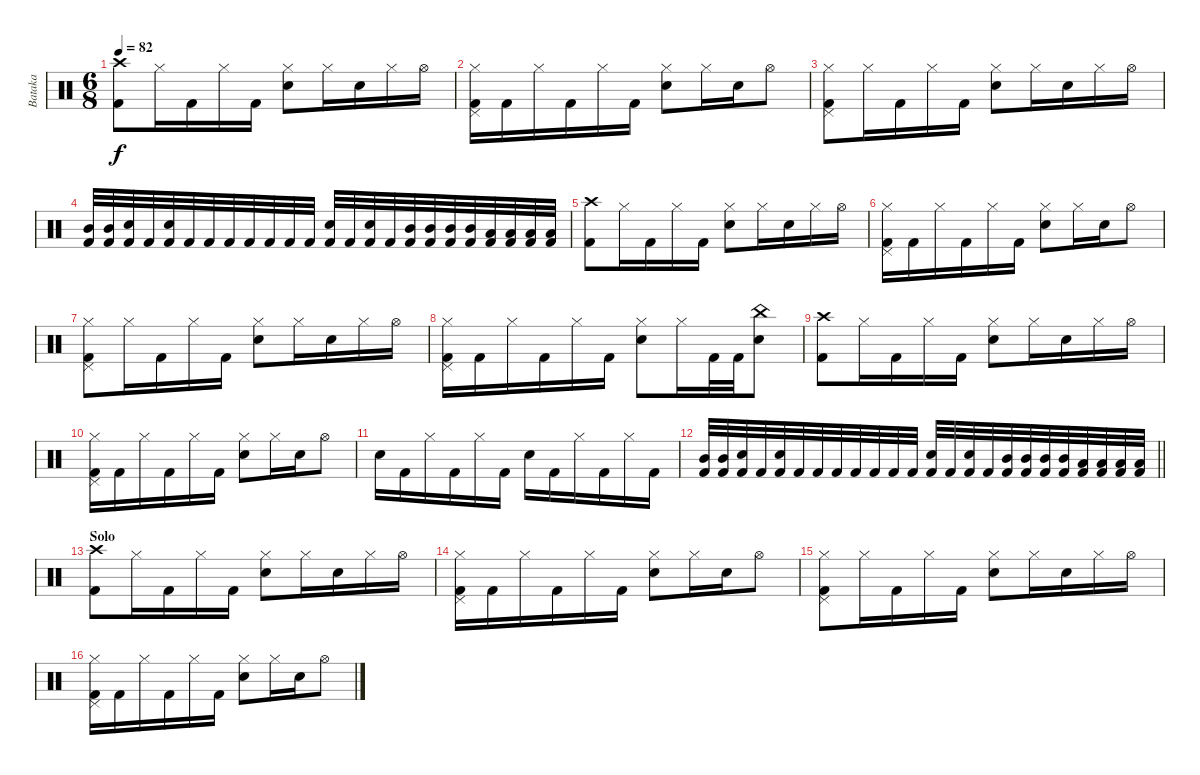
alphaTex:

\track ("Bataka" "Bataka") {instrument percussion}
\staff {score}
\articulation defaults
\ts (6 8)
\tempo 82
\clef neutral
\ks c
("Crash high (hit)" "Kick (hit) 2").8{dy f} "Hi-Hat (closed)".16 "Kick (hit) 2".16 "Hi-Hat (closed)".16 "Kick (hit) 2".16 ("Hi-Hat (closed)" "Snare (hit) 2").8 "Hi-Hat (closed)".16 "Snare (hit) 2".16 "Hi-Hat (closed)".16 "Hi-Hat (open)".16 |
("Hi-Hat (closed)" "Pedal Hi-Hat (hit)" "Kick (hit) 2").16 "Kick (hit) 2".16 "Hi-Hat (closed)".16 "Kick (hit) 2".16 "Hi-Hat (closed)".16 "Kick (hit) 2".16 ("Hi-Hat (closed)" "Snare (hit) 2").8 "Hi-Hat (closed)".16 "Snare (hit) 2".16 "Hi-Hat (open)".8 |
("Hi-Hat (closed)" "Pedal Hi-Hat (hit)" "Kick (hit) 2").8 "Hi-Hat (closed)".16 "Kick (hit) 2".16 "Hi-Hat (closed)".16 "Kick (hit) 2".16 ("Hi-Hat (closed)" "Snare (hit) 2").8 "Hi-Hat (closed)".16 "Snare (hit) 2".16 "Hi-Hat (closed)".16 "Hi-Hat (open)".16 |
("Mid Tom (hit)" "Kick (hit) 2").32 ("Mid Tom (hit)" "Kick (hit) 2").32 ("Snare (hit) 2" "Kick (hit) 2").32 "Kick (hit) 2".32 ("Snare (hit) 2" "Kick (hit) 2").32 "Kick (hit) 2".32 "Kick (hit) 2".32 "Kick (hit) 2".32 "Kick (hit) 2".32 "Kick (hit) 2".32 "Kick (hit) 2".32 "Kick (hit) 2".32 ("Snare (hit) 2" "Kick (hit) 2").32 "Kick (hit) 2".32 ("Snare (hit) 2" "Kick (hit) 2").32 "Kick (hit) 2".32 ("Mid Tom (hit)" "Kick (hit) 2").32 ("Mid Tom (hit)" "Kick (hit) 2").32 ("Mid Tom (hit)" "Kick (hit) 2").32 ("Mid Tom (hit)" "Kick (hit) 2").32 ("Low Tom (hit)" "Kick (hit) 2").32 ("Low Tom (hit)" "Kick (hit) 2").32 ("Low Tom (hit)" "Kick (hit) 2").32 ("Low Tom (hit)" "Kick (hit) 2").32 |
("Crash high (hit)" "Kick (hit) 2").8 "Hi-Hat (closed)".16 "Kick (hit) 2".16 "Hi-Hat (closed)".16 "Kick (hit) 2".16 ("Hi-Hat (closed)" "Snare (hit) 2").8 "Hi-Hat (closed)".16 "Snare (hit) 2".16 "Hi-Hat (closed)".16 "Hi-Hat (open)".16 |
("Hi-Hat (closed)" "Pedal Hi-Hat (hit)" "Kick (hit) 2").16 "Kick (hit) 2".16 "Hi-Hat (closed)".16 "Kick (hit) 2".16 "Hi-Hat (closed)".16 "Kick (hit) 2".16 ("Hi-Hat (closed)" "Snare (hit) 2").8 "Hi-Hat (closed)".16 "Snare (hit) 2".16 "Hi-Hat (open)".8 |
("Hi-Hat (closed)" "Pedal Hi-Hat (hit)" "Kick (hit) 2").8 "Hi-Hat (closed)".16 "Kick (hit) 2".16 "Hi-Hat (closed)".16 "Kick (hit) 2".16 ("Hi-Hat (closed)" "Snare (hit) 2").8 "Hi-Hat (closed)".16 "Snare (hit) 2".16 "Hi-Hat (closed)".16 "Hi-Hat (open)".16 |
("Hi-Hat (closed)" "Pedal Hi-Hat (hit)" "Kick (hit) 2").16 "Kick (hit) 2".16 "Hi-Hat (closed)".16 "Kick (hit) 2".16 "Hi-Hat (closed)".16 "Kick (hit) 2".16 ("Hi-Hat (closed)" "Snare (hit) 2").8 "Hi-Hat (closed)".16 "Kick (hit) 2".32 "Kick (hit) 2".32 ("China (hit)" "Snare (hit) 2").8 |
("Crash high (hit)" "Kick (hit) 2").8 "Hi-Hat (closed)".16 "Kick (hit) 2".16 "Hi-Hat (closed)".16 "Kick (hit) 2".16 ("Hi-Hat (closed)" "Snare (hit) 2").8 "Hi-Hat (closed)".16 "Snare (hit) 2".16 "Hi-Hat (closed)".16 "Hi-Hat (open)".16 |
("Hi-Hat (closed)" "Pedal Hi-Hat (hit)" "Kick (hit) 2").16 "Kick (hit) 2".16 "Hi-Hat (closed)".16 "Kick (hit) 2".16 "Hi-Hat (closed)".16 "Kick (hit) 2".16 ("Hi-Hat (closed)" "Snare (hit) 2").8 "Hi-Hat (closed)".16 "Snare (hit) 2".16 "Hi-Hat (open)".8 |
"Snare (hit) 2".16 "Kick (hit) 2".16 "Hi-Hat (closed)".16 "Kick (hit) 2".16 "Hi-Hat (closed)".16 "Kick (hit) 2".16 "Snare (hit) 2".16 "Kick (hit) 2".16 "Hi-Hat (closed)".16 "Kick (hit) 2".16 "Hi-Hat (closed)".16 "Kick (hit) 2".16 |
\barLineRight lightlight
("Mid Tom (hit)" "Kick (hit) 2").32 ("Mid Tom (hit)" "Kick (hit) 2").32 ("Snare (hit) 2" "Kick (hit) 2").32 "Kick (hit) 2".32 ("Snare (hit) 2" "Kick (hit) 2").32 "Kick (hit) 2".32 "Kick (hit) 2".32 "Kick (hit) 2".32 "Kick (hit) 2".32 "Kick (hit) 2".32 "Kick (hit) 2".32 "Kick (hit) 2".32 ("Snare (hit) 2" "Kick (hit) 2").32 "Kick (hit) 2".32 ("Snare (hit) 2" "Kick (hit) 2").32 "Kick (hit) 2".32 ("Mid Tom (hit)" "Kick (hit) 2").32 ("Mid Tom (hit)" "Kick (hit) 2").32 ("Mid Tom (hit)" "Kick (hit) 2").32 ("Mid Tom (hit)" "Kick (hit) 2").32 ("Low Tom (hit)" "Kick (hit) 2").32 ("Low Tom (hit)" "Kick (hit) 2").32 ("Low Tom (hit)" "Kick (hit) 2").32 ("Low Tom (hit)" "Kick (hit) 2").32 |
\section ("" "Solo")
("Crash high (hit)" "Kick (hit) 2").8 "Hi-Hat (closed)".16 "Kick (hit) 2".16 "Hi-Hat (closed)".16 "Kick (hit) 2".16 ("Hi-Hat (closed)" "Snare (hit) 2").8 "Hi-Hat (closed)".16 "Snare (hit) 2".16 "Hi-Hat (closed)".16 "Hi-Hat (open)".16 |
("Hi-Hat (closed)" "Pedal Hi-Hat (hit)" "Kick (hit) 2").16 "Kick (hit) 2".16 "Hi-Hat (closed)".16 "Kick (hit) 2".16 "Hi-Hat (closed)".16 "Kick (hit) 2".16 ("Hi-Hat (closed)" "Snare (hit) 2").8 "Hi-Hat (closed)".16 "Snare (hit) 2".16 "Hi-Hat (open)".8 |
("Hi-Hat (closed)" "Pedal Hi-Hat (hit)" "Kick (hit) 2").8 "Hi-Hat (closed)".16 "Kick (hit) 2".16 "Hi-Hat (closed)".16 "Kick (hit) 2".16 ("Hi-Hat (closed)" "Snare (hit) 2").8 "Hi-Hat (closed)".16 "Snare (hit) 2".16 "Hi-Hat (closed)".16 "Hi-Hat (open)".16 |
("Hi-Hat (closed)" "Pedal Hi-Hat (hit)" "Kick (hit) 2").16 "Kick (hit) 2".16 "Hi-Hat (closed)".16 "Kick (hit) 2".16 "Hi-Hat (closed)".16 "Kick (hit) 2".16 ("Hi-Hat (closed)" "Snare (hit) 2").8 "Hi-Hat (closed)".16 "Snare (hit) 2".16 "Hi-Hat (open)".8
